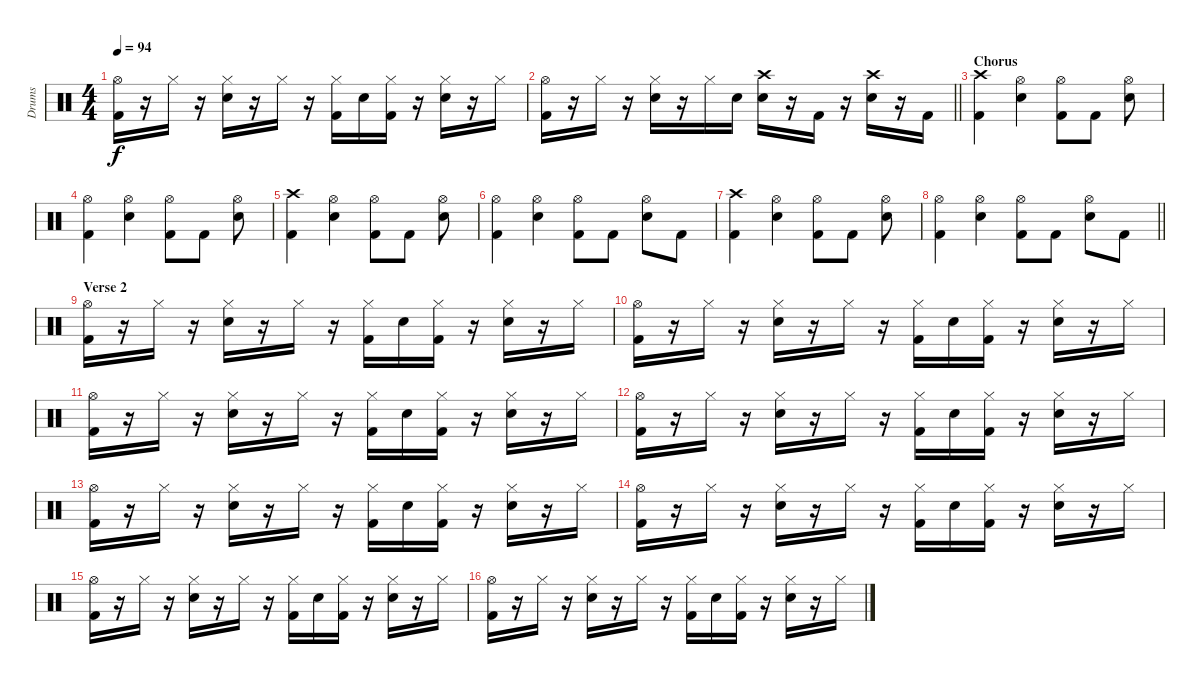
\track ("Drums" "Drums") {instrument percussion}
\staff {score}
\articulation defaults
\ts (4 4)
\tempo 94
\clef neutral
\ks c
("Kick (hit) 2" "Hi-Hat (open)").16{dy f} r.16 "Hi-Hat (closed)".16 r.16 ("Snare (hit) 2" "Hi-Hat (closed)").16 r.16 "Hi-Hat (closed)".16 r.16 ("Kick (hit) 2" "Hi-Hat (closed)").16 "Snare (hit) 2".16 ("Kick (hit) 2" "Hi-Hat (closed)").16 r.16 ("Snare (hit) 2" "Hi-Hat (closed)").16 r.16 "Hi-Hat (closed)".16 |
\barLineRight lightlight
("Kick (hit) 2" "Hi-Hat (open)").16 r.16 "Hi-Hat (closed)".16 r.16 ("Snare (hit) 2" "Hi-Hat (closed)").16 r.16 "Hi-Hat (closed)".16 "Snare (hit)".16 ("Snare (hit) 2" "Crash high (hit)").16 r.16 "Kick (hit) 2".16 r.16 ("Snare (hit) 2" "Crash high (hit)").16 r.16 "Kick (hit) 2".16 |
\section ("" "Chorus")
("Kick (hit) 2" "Crash high (hit)").4 ("Snare (hit) 2" "Hi-Hat (open)").4 ("Kick (hit) 2" "Hi-Hat (open)").8 "Kick (hit) 2".8 ("Snare (hit) 2" "Hi-Hat (open)").8 |
("Kick (hit) 2" "Hi-Hat (open)").4 ("Snare (hit) 2" "Hi-Hat (open)").4 ("Kick (hit) 2" "Hi-Hat (open)").8 "Kick (hit) 2".8 ("Snare (hit) 2" "Hi-Hat (open)").8 |
("Kick (hit) 2" "Crash high (hit)").4 ("Snare (hit) 2" "Hi-Hat (open)").4 ("Kick (hit) 2" "Hi-Hat (open)").8 "Kick (hit) 2".8 ("Snare (hit) 2" "Hi-Hat (open)").8 |
("Kick (hit) 2" "Hi-Hat (open)").4 ("Snare (hit) 2" "Hi-Hat (open)").4 ("Kick (hit) 2" "Hi-Hat (open)").8 "Kick (hit) 2".8 ("Snare (hit) 2" "Hi-Hat (open)").8 "Kick (hit) 2".8 |
("Kick (hit) 2" "Crash high (hit)").4 ("Snare (hit) 2" "Hi-Hat (open)").4 ("Kick (hit) 2" "Hi-Hat (open)").8 "Kick (hit) 2".8 ("Snare (hit) 2" "Hi-Hat (open)").8 |
\barLineRight lightlight
("Kick (hit) 2" "Hi-Hat (open)").4 ("Snare (hit) 2" "Hi-Hat (open)").4 ("Kick (hit) 2" "Hi-Hat (open)").8 "Kick (hit) 2".8 ("Snare (hit) 2" "Hi-Hat (open)").8 "Kick (hit) 2".8 |
\section ("" "Verse 2")
("Kick (hit) 2" "Hi-Hat (open)").16 r.16 "Hi-Hat (closed)".16 r.16 ("Snare (hit) 2" "Hi-Hat (closed)").16 r.16 "Hi-Hat (closed)".16 r.16 ("Kick (hit) 2" "Hi-Hat (closed)").16 "Snare (hit) 2".16 ("Kick (hit) 2" "Hi-Hat (closed)").16 r.16 ("Snare (hit) 2" "Hi-Hat (closed)").16 r.16 "Hi-Hat (closed)".16 |
("Kick (hit) 2" "Hi-Hat (open)").16 r.16 "Hi-Hat (closed)".16 r.16 ("Snare (hit) 2" "Hi-Hat (closed)").16 r.16 "Hi-Hat (closed)".16 r.16 ("Kick (hit) 2" "Hi-Hat (closed)").16 "Snare (hit) 2".16 ("Kick (hit) 2" "Hi-Hat (closed)").16 r.16 ("Snare (hit) 2" "Hi-Hat (closed)").16 r.16 "Hi-Hat (closed)".16 |
("Kick (hit) 2" "Hi-Hat (open)").16 r.16 "Hi-Hat (closed)".16 r.16 ("Snare (hit) 2" "Hi-Hat (closed)").16 r.16 "Hi-Hat (closed)".16 r.16 ("Kick (hit) 2" "Hi-Hat (closed)").16 "Snare (hit) 2".16 ("Kick (hit) 2" "Hi-Hat (closed)").16 r.16 ("Snare (hit) 2" "Hi-Hat (closed)").16 r.16 "Hi-Hat (closed)".16 |
("Kick (hit) 2" "Hi-Hat (open)").16 r.16 "Hi-Hat (closed)".16 r.16 ("Snare (hit) 2" "Hi-Hat (closed)").16 r.16 "Hi-Hat (closed)".16 r.16 ("Kick (hit) 2" "Hi-Hat (closed)").16 "Snare (hit) 2".16 ("Kick (hit) 2" "Hi-Hat (closed)").16 r.16 ("Snare (hit) 2" "Hi-Hat (closed)").16 r.16 "Hi-Hat (closed)".16 |
("Kick (hit) 2" "Hi-Hat (open)").16 r.16 "Hi-Hat (closed)".16 r.16 ("Snare (hit) 2" "Hi-Hat (closed)").16 r.16 "Hi-Hat (closed)".16 r.16 ("Kick (hit) 2" "Hi-Hat (closed)").16 "Snare (hit) 2".16 ("Kick (hit) 2" "Hi-Hat (closed)").16 r.16 ("Snare (hit) 2" "Hi-Hat (closed)").16 r.16 "Hi-Hat (closed)".16 |
("Kick (hit) 2" "Hi-Hat (open)").16 r.16 "Hi-Hat (closed)".16 r.16 ("Snare (hit) 2" "Hi-Hat (closed)").16 r.16 "Hi-Hat (closed)".16 r.16 ("Kick (hit) 2" "Hi-Hat (closed)").16 "Snare (hit) 2".16 ("Kick (hit) 2" "Hi-Hat (closed)").16 r.16 ("Snare (hit) 2" "Hi-Hat (closed)").16 r.16 "Hi-Hat (closed)".16 |
("Kick (hit) 2" "Hi-Hat (open)").16 r.16 "Hi-Hat (closed)".16 r.16 ("Snare (hit) 2" "Hi-Hat (closed)").16 r.16 "Hi-Hat (closed)".16 r.16 ("Kick (hit) 2" "Hi-Hat (closed)").16 "Snare (hit) 2".16 ("Kick (hit) 2" "Hi-Hat (closed)").16 r.16 ("Snare (hit) 2" "Hi-Hat (closed)").16 r.16 "Hi-Hat (closed)".16 |
("Kick (hit) 2" "Hi-Hat (open)").16 r.16 "Hi-Hat (closed)".16 r.16 ("Snare (hit) 2" "Hi-Hat (closed)").16 r.16 "Hi-Hat (closed)".16 r.16 ("Kick (hit) 2" "Hi-Hat (closed)").16 "Snare (hit) 2".16 ("Kick (hit) 2" "Hi-Hat (closed)").16 r.16 ("Snare (hit) 2" "Hi-Hat (closed)").16 r.16 "Hi-Hat (closed)".16
